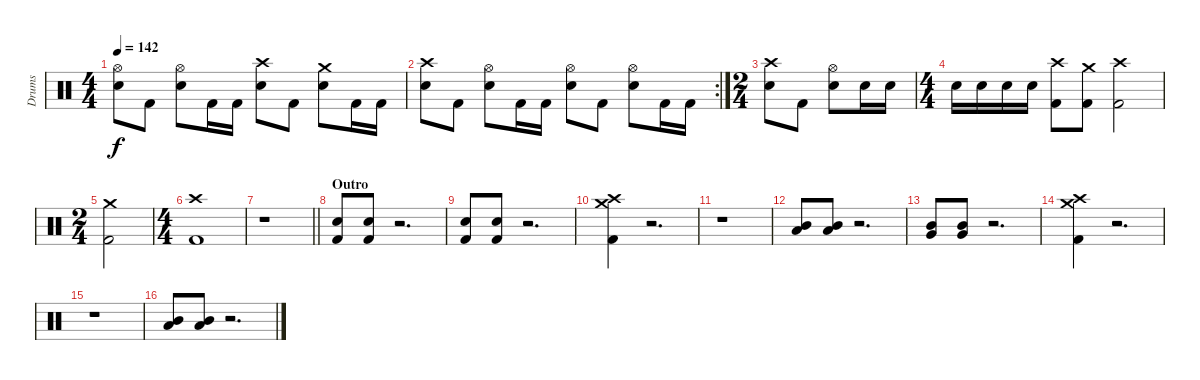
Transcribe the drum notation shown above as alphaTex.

\track ("Drums" "Drums") {instrument percussion}
\staff {score}
\articulation defaults
\ts (4 4)
\tempo 142
\clef neutral
\ks c
("Snare (hit) 2" "Hi-Hat (open)").8{dy f} "Kick (hit) 2".8 ("Snare (hit) 2" "Hi-Hat (open)").8 "Kick (hit) 2".16 "Kick (hit) 2".16 ("Snare (hit) 2" "Crash high (hit)").8 "Kick (hit) 2".8 ("Snare (hit) 2" "Crash medium (hit)").8 "Kick (hit) 2".16 "Kick (hit) 2".16 |
\rc 2
("Snare (hit) 2" "Crash high (hit)").8 "Kick (hit) 2".8 ("Snare (hit) 2" "Hi-Hat (open)").8 "Kick (hit) 2".16 "Kick (hit) 2".16 ("Snare (hit) 2" "Hi-Hat (open)").8 "Kick (hit) 2".8 ("Snare (hit) 2" "Hi-Hat (open)").8 "Kick (hit) 2".16 "Kick (hit) 2".16 |
\ts (2 4)
("Snare (hit) 2" "Crash high (hit)").8 "Kick (hit) 2".8 ("Snare (hit) 2" "Hi-Hat (open)").8 "Snare (hit) 2".16 "Snare (hit) 2".16 |
\ts (4 4)
"Snare (hit) 2".16 "Snare (hit) 2".16 "Snare (hit) 2".16 "Snare (hit) 2".16 ("Crash high (hit)" "Kick (hit) 2").8 ("Crash medium (hit)" "Kick (hit) 2").8 ("Crash high (hit)" "Kick (hit) 2").2 |
\ts (2 4)
("Crash medium (hit)" "Kick (hit) 2").2 |
\ts (4 4)
("Crash high (hit)" "Kick (hit) 2").1 |
\barLineRight lightlight
r.1 |
\section ("" "Outro")
("Snare (hit) 2" "Kick (hit) 2").8 ("Snare (hit) 2" "Kick (hit) 2").8 r.2{d} |
("Snare (hit) 2" "Kick (hit) 2").8 ("Snare (hit) 2" "Kick (hit) 2").8 r.2{d} |
("Crash high (hit)" "Kick (hit) 2" "Crash medium (hit)").4 r.2{d} |
r.1 |
("Mid Tom (hit)" "Low Tom (hit)").8 ("Mid Tom (hit)" "Low Tom (hit)").8 r.2{d} |
("Mid Tom (hit)" "Very Low Tom (hit)").8 ("Mid Tom (hit)" "Very Low Tom (hit)").8 r.2{d} |
("Crash high (hit)" "Kick (hit) 2" "Crash medium (hit)").4 r.2{d} |
r.1 |
("Mid Tom (hit)" "Low Tom (hit)").8 ("Mid Tom (hit)" "Low Tom (hit)").8 r.2{d}
